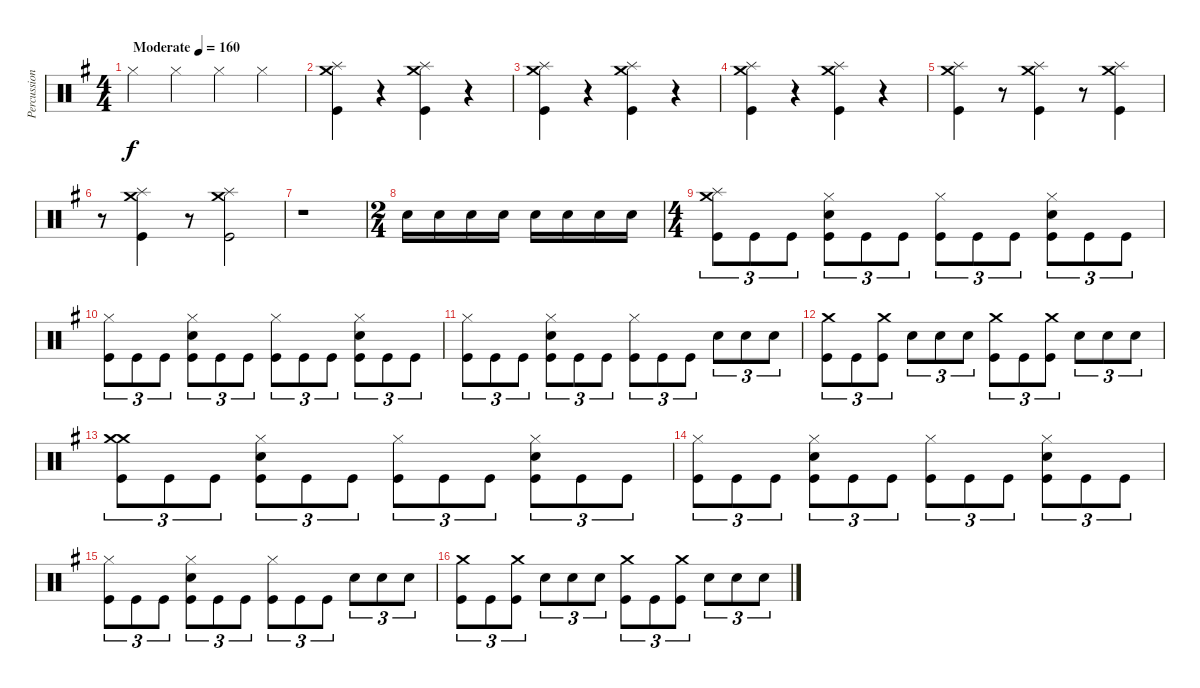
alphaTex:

\track ("Percussions" "Percussion") {instrument percussion}
\staff {score}
\articulation defaults
\ts (4 4)
\tempo (160 "Moderate")
\clef neutral
\ks g "Hi-Hat (closed)".4{dy f} "Hi-Hat (closed)".4 "Hi-Hat (closed)".4 "Hi-Hat (closed)".4
|
("Kick (hit)" "Splash (hit)" "Crash medium (hit)").4 r.4 ("Kick (hit)" "Splash (hit)" "Crash medium (hit)").4 r.4 |
("Kick (hit)" "Splash (hit)" "Crash medium (hit)").4 r.4 ("Kick (hit)" "Splash (hit)" "Crash medium (hit)").4 r.4 |
("Kick (hit)" "Splash (hit)" "Crash medium (hit)").4 r.4 ("Kick (hit)" "Splash (hit)" "Crash medium (hit)").4 r.4 |
("Kick (hit)" "Splash (hit)" "Crash medium (hit)").4 r.8 ("Kick (hit)" "Splash (hit)" "Crash medium (hit)").4 r.8 ("Kick (hit)" "Splash (hit)" "Crash medium (hit)").4 |
r.8 ("Kick (hit)" "Splash (hit)" "Crash medium (hit)").4 r.8 ("Kick (hit)" "Splash (hit)" "Crash medium (hit)").2 |
r.1 |
\ts (2 4)
"Electric Snare (hit)".16 "Electric Snare (hit)".16 "Electric Snare (hit)".16 "Electric Snare (hit)".16 "Electric Snare (hit)".16 "Electric Snare (hit)".16 "Electric Snare (hit)".16 "Electric Snare (hit)".16 |
\ts (4 4)
("Kick (hit)" "Splash (hit)" "Crash medium (hit)").8{tu (3 2)} "Kick (hit)".8{tu (3 2)} "Kick (hit)".8{tu (3 2)} ("Kick (hit)" "Electric Snare (hit)" "Hi-Hat (closed)").8{tu (3 2)} "Kick (hit)".8{tu (3 2)} "Kick (hit)".8{tu (3 2)} ("Kick (hit)" "Hi-Hat (closed)").8{tu (3 2)} "Kick (hit)".8{tu (3 2)} "Kick (hit)".8{tu (3 2)} ("Kick (hit)" "Electric Snare (hit)" "Hi-Hat (closed)").8{tu (3 2)} "Kick (hit)".8{tu (3 2)} "Kick (hit)".8{tu (3 2)} |
("Kick (hit)" "Hi-Hat (closed)").8{tu (3 2)} "Kick (hit)".8{tu (3 2)} "Kick (hit)".8{tu (3 2)} ("Kick (hit)" "Electric Snare (hit)" "Hi-Hat (closed)").8{tu (3 2)} "Kick (hit)".8{tu (3 2)} "Kick (hit)".8{tu (3 2)} ("Kick (hit)" "Hi-Hat (closed)").8{tu (3 2)} "Kick (hit)".8{tu (3 2)} "Kick (hit)".8{tu (3 2)} ("Kick (hit)" "Electric Snare (hit)" "Hi-Hat (closed)").8{tu (3 2)} "Kick (hit)".8{tu (3 2)} "Kick (hit)".8{tu (3 2)} |
("Kick (hit)" "Hi-Hat (closed)").8{tu (3 2)} "Kick (hit)".8{tu (3 2)} "Kick (hit)".8{tu (3 2)} ("Kick (hit)" "Electric Snare (hit)" "Hi-Hat (closed)").8{tu (3 2)} "Kick (hit)".8{tu (3 2)} "Kick (hit)".8{tu (3 2)} ("Kick (hit)" "Hi-Hat (closed)").8{tu (3 2)} "Kick (hit)".8{tu (3 2)} "Kick (hit)".8{tu (3 2)} "Electric Snare (hit)".8{tu (3 2)} "Electric Snare (hit)".8{tu (3 2)} "Electric Snare (hit)".8{tu (3 2)} |
("Kick (hit)" "Crash medium (hit)").8{tu (3 2)} "Kick (hit)".8{tu (3 2)} ("Kick (hit)" "Crash medium (hit)").8{tu (3 2)} "Electric Snare (hit)".8{tu (3 2)} "Electric Snare (hit)".8{tu (3 2)} "Electric Snare (hit)".8{tu (3 2)} ("Kick (hit)" "Crash medium (hit)").8{tu (3 2)} "Kick (hit)".8{tu (3 2)} ("Kick (hit)" "Crash medium (hit)").8{tu (3 2)} "Electric Snare (hit)".8{tu (3 2)} "Electric Snare (hit)".8{tu (3 2)} "Electric Snare (hit)".8{tu (3 2)} |
("Kick (hit)" "Crash medium (hit)" "Crash medium (hit)").8{tu (3 2)} "Kick (hit)".8{tu (3 2)} "Kick (hit)".8{tu (3 2)} ("Kick (hit)" "Electric Snare (hit)" "Hi-Hat (closed)").8{tu (3 2)} "Kick (hit)".8{tu (3 2)} "Kick (hit)".8{tu (3 2)} ("Kick (hit)" "Hi-Hat (closed)").8{tu (3 2)} "Kick (hit)".8{tu (3 2)} "Kick (hit)".8{tu (3 2)} ("Kick (hit)" "Electric Snare (hit)" "Hi-Hat (closed)").8{tu (3 2)} "Kick (hit)".8{tu (3 2)} "Kick (hit)".8{tu (3 2)} |
("Kick (hit)" "Hi-Hat (closed)").8{tu (3 2)} "Kick (hit)".8{tu (3 2)} "Kick (hit)".8{tu (3 2)} ("Kick (hit)" "Electric Snare (hit)" "Hi-Hat (closed)").8{tu (3 2)} "Kick (hit)".8{tu (3 2)} "Kick (hit)".8{tu (3 2)} ("Kick (hit)" "Hi-Hat (closed)").8{tu (3 2)} "Kick (hit)".8{tu (3 2)} "Kick (hit)".8{tu (3 2)} ("Kick (hit)" "Electric Snare (hit)" "Hi-Hat (closed)").8{tu (3 2)} "Kick (hit)".8{tu (3 2)} "Kick (hit)".8{tu (3 2)} |
("Kick (hit)" "Hi-Hat (closed)").8{tu (3 2)} "Kick (hit)".8{tu (3 2)} "Kick (hit)".8{tu (3 2)} ("Kick (hit)" "Electric Snare (hit)" "Hi-Hat (closed)").8{tu (3 2)} "Kick (hit)".8{tu (3 2)} "Kick (hit)".8{tu (3 2)} ("Kick (hit)" "Hi-Hat (closed)").8{tu (3 2)} "Kick (hit)".8{tu (3 2)} "Kick (hit)".8{tu (3 2)} "Electric Snare (hit)".8{tu (3 2)} "Electric Snare (hit)".8{tu (3 2)} "Electric Snare (hit)".8{tu (3 2)} |
("Kick (hit)" "Crash medium (hit)").8{tu (3 2)} "Kick (hit)".8{tu (3 2)} ("Kick (hit)" "Crash medium (hit)").8{tu (3 2)} "Electric Snare (hit)".8{tu (3 2)} "Electric Snare (hit)".8{tu (3 2)} "Electric Snare (hit)".8{tu (3 2)} ("Kick (hit)" "Crash medium (hit)").8{tu (3 2)} "Kick (hit)".8{tu (3 2)} ("Kick (hit)" "Crash medium (hit)").8{tu (3 2)} "Electric Snare (hit)".8{tu (3 2)} "Electric Snare (hit)".8{tu (3 2)} "Electric Snare (hit)".8{tu (3 2)}
